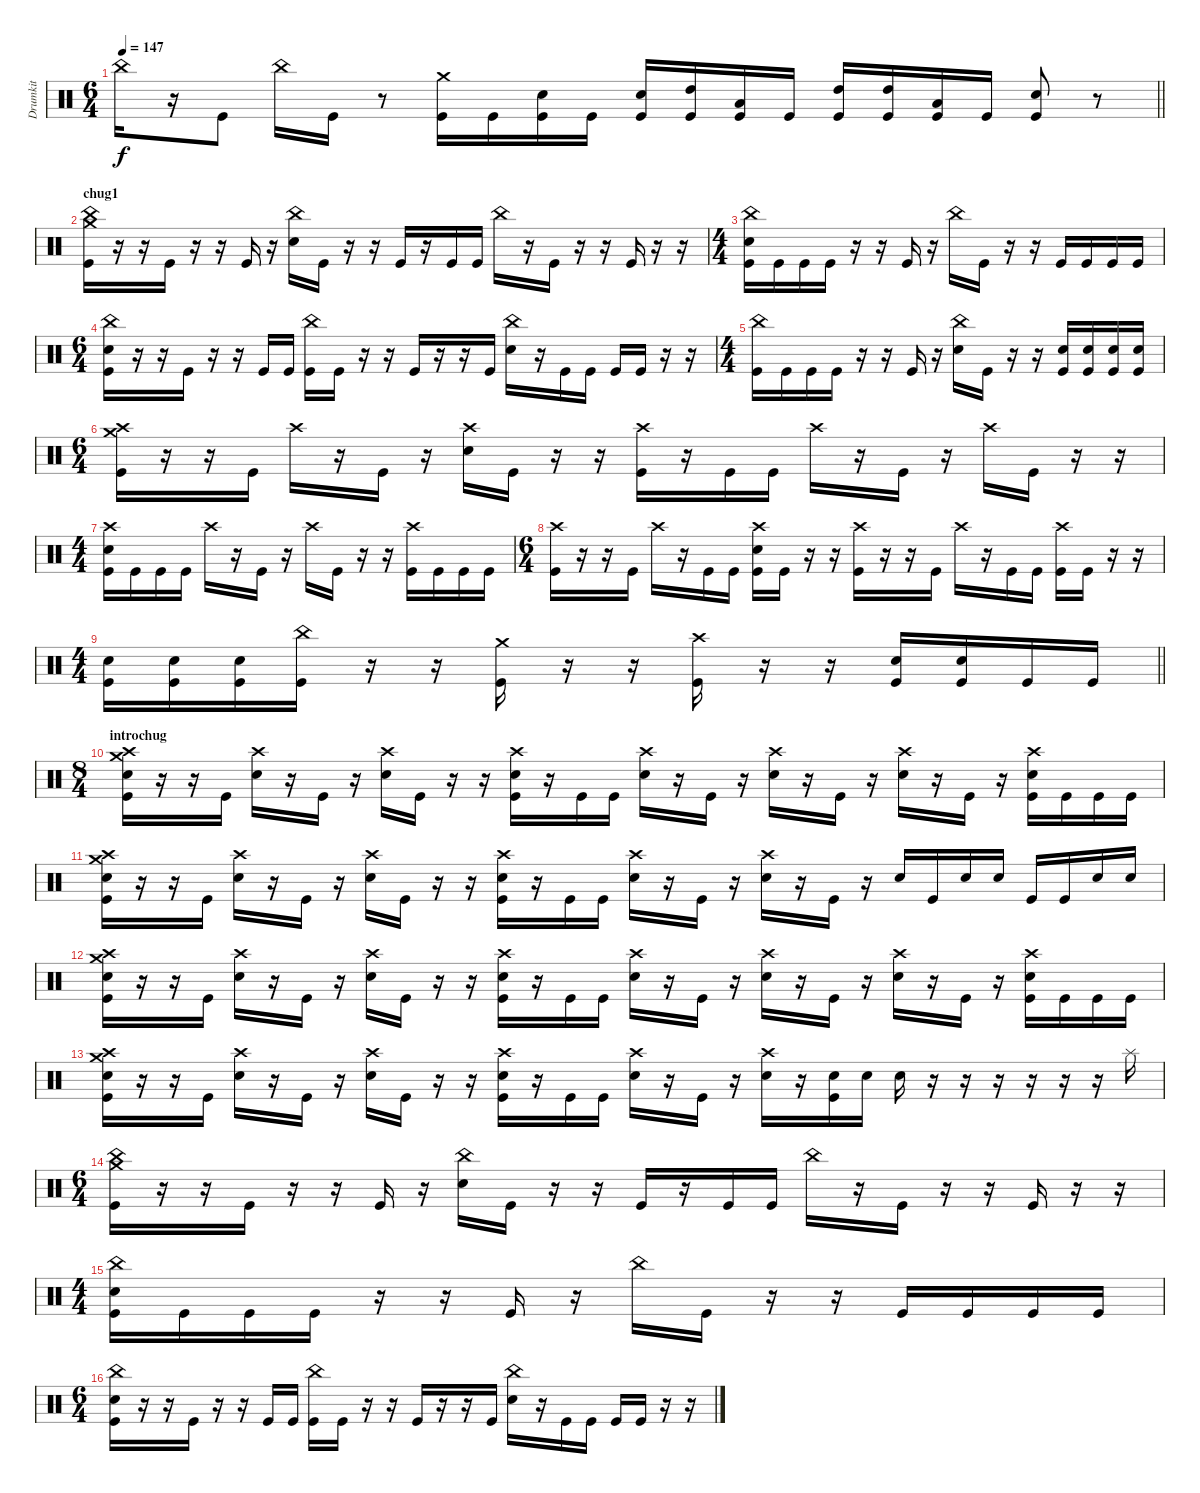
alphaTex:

\track ("Drumkit" "Drumkit") {instrument percussion}
\staff {score}
\articulation defaults
\ts (6 4)
\tempo 147
\clef neutral
\barLineRight lightlight
\ks c "China (hit)".16{dy f}
r.16 "Kick (hit)".8 "China (hit)".16 "Kick (hit)".16 r.8 ("Crash medium (hit)" "Kick (hit)").16 "Kick (hit)".16 ("Snare (hit) 2" "Kick (hit)").16 "Kick (hit)".16 ("Snare (hit) 2" "Kick (hit)").16 ("High Tom (hit)" "Kick (hit)").16 ("Low Tom (hit)" "Kick (hit)").16 "Kick (hit)".16 ("High Tom (hit)" "Kick (hit)").16 ("High Tom (hit)" "Kick (hit)").16 ("Low Tom (hit)" "Kick (hit)").16 "Kick (hit)".16 ("Snare (hit) 2" "Kick (hit)").8 r.8 |
\section ("" "chug1")
("Crash medium (hit)" "China (hit)" "Kick (hit)").16 r.16 r.16 "Kick (hit)".16 r.16 r.16 "Kick (hit)".16 r.16 ("China (hit)" "Snare (hit) 2").16 "Kick (hit)".16 r.16 r.16 "Kick (hit)".16 r.16 "Kick (hit)".16 "Kick (hit)".16 "China (hit)".16 r.16 "Kick (hit)".16 r.16 r.16 "Kick (hit)".16 r.16 r.16 |
\ts (4 4)
("China (hit)" "Snare (hit) 2" "Kick (hit)").16 "Kick (hit)".16 "Kick (hit)".16 "Kick (hit)".16 r.16 r.16 "Kick (hit)".16 r.16 "China (hit)".16 "Kick (hit)".16 r.16 r.16 "Kick (hit)".16 "Kick (hit)".16 "Kick (hit)".16 "Kick (hit)".16 |
\ts (6 4)
("China (hit)" "Snare (hit) 2" "Kick (hit)").16 r.16 r.16 "Kick (hit)".16 r.16 r.16 "Kick (hit)".16 "Kick (hit)".16 ("China (hit)" "Kick (hit)").16 "Kick (hit)".16 r.16 r.16 "Kick (hit)".16 r.16 r.16 "Kick (hit)".16 ("China (hit)" "Snare (hit) 2").16 r.16 "Kick (hit)".16 "Kick (hit)".16 "Kick (hit)".16 "Kick (hit)".16 r.16 r.16 |
\ts (4 4)
("China (hit)" "Kick (hit)").16 "Kick (hit)".16 "Kick (hit)".16 "Kick (hit)".16 r.16 r.16 "Kick (hit)".16 r.16 ("China (hit)" "Snare (hit) 2").16 "Kick (hit)".16 r.16 r.16 ("Snare (hit) 2" "Kick (hit)").16 ("Snare (hit) 2" "Kick (hit)").16 ("Snare (hit) 2" "Kick (hit)").16 ("Snare (hit) 2" "Kick (hit)").16 |
\ts (6 4)
("Crash medium (hit)" "Crash high (hit)" "Kick (hit)").16 r.16 r.16 "Kick (hit)".16 "Crash high (hit)".16 r.16 "Kick (hit)".16 r.16 ("Crash high (hit)" "Snare (hit) 2").16 "Kick (hit)".16 r.16 r.16 ("Crash high (hit)" "Kick (hit)").16 r.16 "Kick (hit)".16 "Kick (hit)".16 "Crash high (hit)".16 r.16 "Kick (hit)".16 r.16 "Crash high (hit)".16 "Kick (hit)".16 r.16 r.16 |
\ts (4 4)
("Crash high (hit)" "Snare (hit) 2" "Kick (hit)").16 "Kick (hit)".16 "Kick (hit)".16 "Kick (hit)".16 "Crash high (hit)".16 r.16 "Kick (hit)".16 r.16 "Crash high (hit)".16 "Kick (hit)".16 r.16 r.16 ("Crash high (hit)" "Kick (hit)").16 "Kick (hit)".16 "Kick (hit)".16 "Kick (hit)".16 |
\ts (6 4)
("Crash high (hit)" "Kick (hit)").16 r.16 r.16 "Kick (hit)".16 "Crash high (hit)".16 r.16 "Kick (hit)".16 "Kick (hit)".16 ("Crash high (hit)" "Snare (hit) 2" "Kick (hit)").16 "Kick (hit)".16 r.16 r.16 ("Crash high (hit)" "Kick (hit)").16 r.16 r.16 "Kick (hit)".16 "Crash high (hit)".16 r.16 "Kick (hit)".16 "Kick (hit)".16 ("Crash high (hit)" "Kick (hit)").16 "Kick (hit)".16 r.16 r.16 |
\ts (4 4)
\barLineRight lightlight
("Snare (hit) 2" "Kick (hit)").16 ("Snare (hit) 2" "Kick (hit)").16 ("Snare (hit) 2" "Kick (hit)").16 ("China (hit)" "Kick (hit)").16 r.16 r.16 ("Crash medium (hit)" "Kick (hit)").16 r.16 r.16 ("Crash high (hit)" "Kick (hit)").16 r.16 r.16 ("Snare (hit) 2" "Kick (hit)").16 ("Snare (hit) 2" "Kick (hit)").16 "Kick (hit)".16 "Kick (hit)".16 |
\ts (8 4)
\section ("" "introchug")
("Crash medium (hit)" "Crash high (hit)" "Snare (hit) 2" "Kick (hit)").16 r.16 r.16 "Kick (hit)".16 ("Crash high (hit)" "Snare (hit) 2").16 r.16 "Kick (hit)".16 r.16 ("Crash high (hit)" "Snare (hit) 2").16 "Kick (hit)".16 r.16 r.16 ("Crash high (hit)" "Snare (hit) 2" "Kick (hit)").16 r.16 "Kick (hit)".16 "Kick (hit)".16 ("Crash high (hit)" "Snare (hit) 2").16 r.16 "Kick (hit)".16 r.16 ("Crash high (hit)" "Snare (hit) 2").16 r.16 "Kick (hit)".16 r.16 ("Crash high (hit)" "Snare (hit) 2").16 r.16 "Kick (hit)".16 r.16 ("Crash high (hit)" "Snare (hit) 2" "Kick (hit)").16 "Kick (hit)".16 "Kick (hit)".16 "Kick (hit)".16 |
("Crash medium (hit)" "Crash high (hit)" "Snare (hit) 2" "Kick (hit)").16 r.16 r.16 "Kick (hit)".16 ("Crash high (hit)" "Snare (hit) 2").16 r.16 "Kick (hit)".16 r.16 ("Crash high (hit)" "Snare (hit) 2").16 "Kick (hit)".16 r.16 r.16 ("Crash high (hit)" "Snare (hit) 2" "Kick (hit)").16 r.16 "Kick (hit)".16 "Kick (hit)".16 ("Crash high (hit)" "Snare (hit) 2").16 r.16 "Kick (hit)".16 r.16 ("Crash high (hit)" "Snare (hit) 2").16 r.16 "Kick (hit)".16 r.16 "Snare (hit) 2".16 "Kick (hit)".16 "Snare (hit) 2".16 "Snare (hit) 2".16 "Kick (hit)".16 "Kick (hit)".16 "Snare (hit) 2".16 "Snare (hit) 2".16 |
("Crash medium (hit)" "Crash high (hit)" "Snare (hit) 2" "Kick (hit)").16 r.16 r.16 "Kick (hit)".16 ("Crash high (hit)" "Snare (hit) 2").16 r.16 "Kick (hit)".16 r.16 ("Crash high (hit)" "Snare (hit) 2").16 "Kick (hit)".16 r.16 r.16 ("Crash high (hit)" "Snare (hit) 2" "Kick (hit)").16 r.16 "Kick (hit)".16 "Kick (hit)".16 ("Crash high (hit)" "Snare (hit) 2").16 r.16 "Kick (hit)".16 r.16 ("Crash high (hit)" "Snare (hit) 2").16 r.16 "Kick (hit)".16 r.16 ("Crash high (hit)" "Snare (hit) 2").16 r.16 "Kick (hit)".16 r.16 ("Crash high (hit)" "Snare (hit) 2" "Kick (hit)").16 "Kick (hit)".16 "Kick (hit)".16 "Kick (hit)".16 |
("Crash medium (hit)" "Crash high (hit)" "Snare (hit) 2" "Kick (hit)").16 r.16 r.16 "Kick (hit)".16 ("Crash high (hit)" "Snare (hit) 2").16 r.16 "Kick (hit)".16 r.16 ("Crash high (hit)" "Snare (hit) 2").16 "Kick (hit)".16 r.16 r.16 ("Crash high (hit)" "Snare (hit) 2" "Kick (hit)").16 r.16 "Kick (hit)".16 "Kick (hit)".16 ("Crash high (hit)" "Snare (hit) 2").16 r.16 "Kick (hit)".16 r.16 ("Crash high (hit)" "Snare (hit) 2").16 r.16 ("Snare (hit) 2" "Kick (hit)").16 "Snare (hit) 2".16 "Snare (hit) 2".16 r.16 r.16 r.16 r.16 r.16 r.16 "Splash (hit)".16 |
\ts (6 4)
("Crash medium (hit)" "China (hit)" "Kick (hit)").16 r.16 r.16 "Kick (hit)".16 r.16 r.16 "Kick (hit)".16 r.16 ("China (hit)" "Snare (hit) 2").16 "Kick (hit)".16 r.16 r.16 "Kick (hit)".16 r.16 "Kick (hit)".16 "Kick (hit)".16 "China (hit)".16 r.16 "Kick (hit)".16 r.16 r.16 "Kick (hit)".16 r.16 r.16 |
\ts (4 4)
("China (hit)" "Snare (hit) 2" "Kick (hit)").16 "Kick (hit)".16 "Kick (hit)".16 "Kick (hit)".16 r.16 r.16 "Kick (hit)".16 r.16 "China (hit)".16 "Kick (hit)".16 r.16 r.16 "Kick (hit)".16 "Kick (hit)".16 "Kick (hit)".16 "Kick (hit)".16 |
\ts (6 4)
("China (hit)" "Snare (hit) 2" "Kick (hit)").16 r.16 r.16 "Kick (hit)".16 r.16 r.16 "Kick (hit)".16 "Kick (hit)".16 ("China (hit)" "Kick (hit)").16 "Kick (hit)".16 r.16 r.16 "Kick (hit)".16 r.16 r.16 "Kick (hit)".16 ("China (hit)" "Snare (hit) 2").16 r.16 "Kick (hit)".16 "Kick (hit)".16 "Kick (hit)".16 "Kick (hit)".16 r.16 r.16
